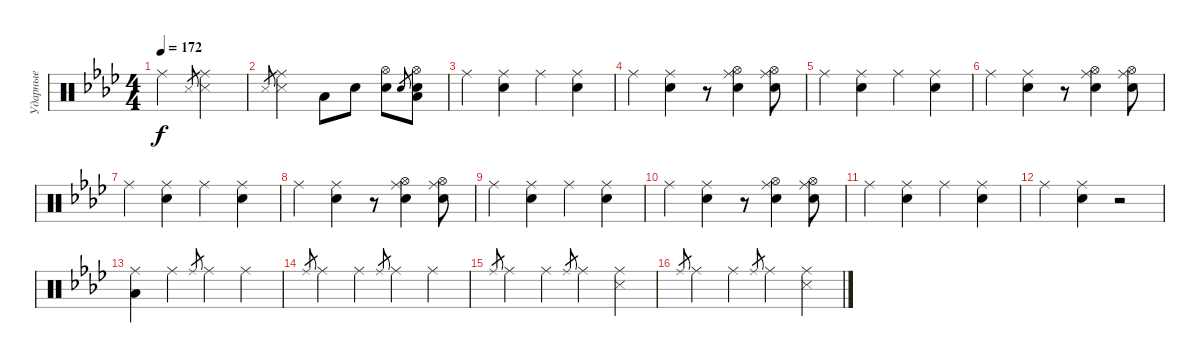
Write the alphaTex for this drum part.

\track ("Ударные" "Ударные") {instrument percussion}
\staff {score}
\articulation defaults
\ts (4 4)
\tempo 172
\clef neutral
\ks ab "Ride (middle)".2{dy f} "Snare (side stick) 3".8{gr}
("Ride (middle)" "Snare (side stick) 3").2 |
"Snare (side stick) 3".8{gr} ("Ride (middle)" "Snare (side stick) 3").2 "Low Tom (hit)".8 "Electric Snare (hit)".8 ("Hi-Hat (open)" "Electric Snare (hit)").8 "Electric Snare (hit)".8{gr} ("Hi-Hat (open)" "Low Tom (hit)" "Electric Snare (hit)").8 |
"Ride (middle)".4 ("Ride (middle)" "Electric Snare (hit)").4 "Ride (middle)".4 ("Ride (middle)" "Electric Snare (hit)").4 |
"Ride (middle)".4 ("Ride (middle)" "Electric Snare (hit)").4 r.8 ("Hi-Hat (open)" "Ride (middle)" "Electric Snare (hit)").4 ("Hi-Hat (open)" "Ride (middle)" "Electric Snare (hit)").8 |
"Ride (middle)".4 ("Ride (middle)" "Electric Snare (hit)").4 "Ride (middle)".4 ("Ride (middle)" "Electric Snare (hit)").4 |
"Ride (middle)".4 ("Ride (middle)" "Electric Snare (hit)").4 r.8 ("Hi-Hat (open)" "Ride (middle)" "Electric Snare (hit)").4 ("Hi-Hat (open)" "Ride (middle)" "Electric Snare (hit)").8 |
"Ride (middle)".4 ("Ride (middle)" "Electric Snare (hit)").4 "Ride (middle)".4 ("Ride (middle)" "Electric Snare (hit)").4 |
"Ride (middle)".4 ("Ride (middle)" "Electric Snare (hit)").4 r.8 ("Hi-Hat (open)" "Ride (middle)" "Electric Snare (hit)").4 ("Hi-Hat (open)" "Ride (middle)" "Electric Snare (hit)").8 |
"Ride (middle)".4 ("Ride (middle)" "Electric Snare (hit)").4 "Ride (middle)".4 ("Ride (middle)" "Electric Snare (hit)").4 |
"Ride (middle)".4 ("Ride (middle)" "Electric Snare (hit)").4 r.8 ("Hi-Hat (open)" "Ride (middle)" "Electric Snare (hit)").4 ("Hi-Hat (open)" "Ride (middle)" "Electric Snare (hit)").8 |
"Ride (middle)".4 ("Ride (middle)" "Electric Snare (hit)").4 "Ride (middle)".4 ("Ride (middle)" "Electric Snare (hit)").4 |
"Ride (middle)".4 ("Ride (middle)" "Electric Snare (hit)").4 r.2 |
("Ride (middle)" "Low Tom (hit)").4 "Ride (middle)".4 "Ride (middle)".8{gr} "Ride (middle)".4 "Ride (middle)".4 |
"Ride (middle)".8{gr} "Ride (middle)".4 "Ride (middle)".4 "Ride (middle)".8{gr} "Ride (middle)".4 "Ride (middle)".4 |
"Ride (middle)".8{gr} "Ride (middle)".4 "Ride (middle)".4 "Ride (middle)".8{gr} "Ride (middle)".4 ("Ride (middle)" "Snare (side stick) 3").4 |
"Ride (middle)".8{gr} "Ride (middle)".4 "Ride (middle)".4 "Ride (middle)".8{gr} "Ride (middle)".4 ("Ride (middle)" "Snare (side stick) 3").4
